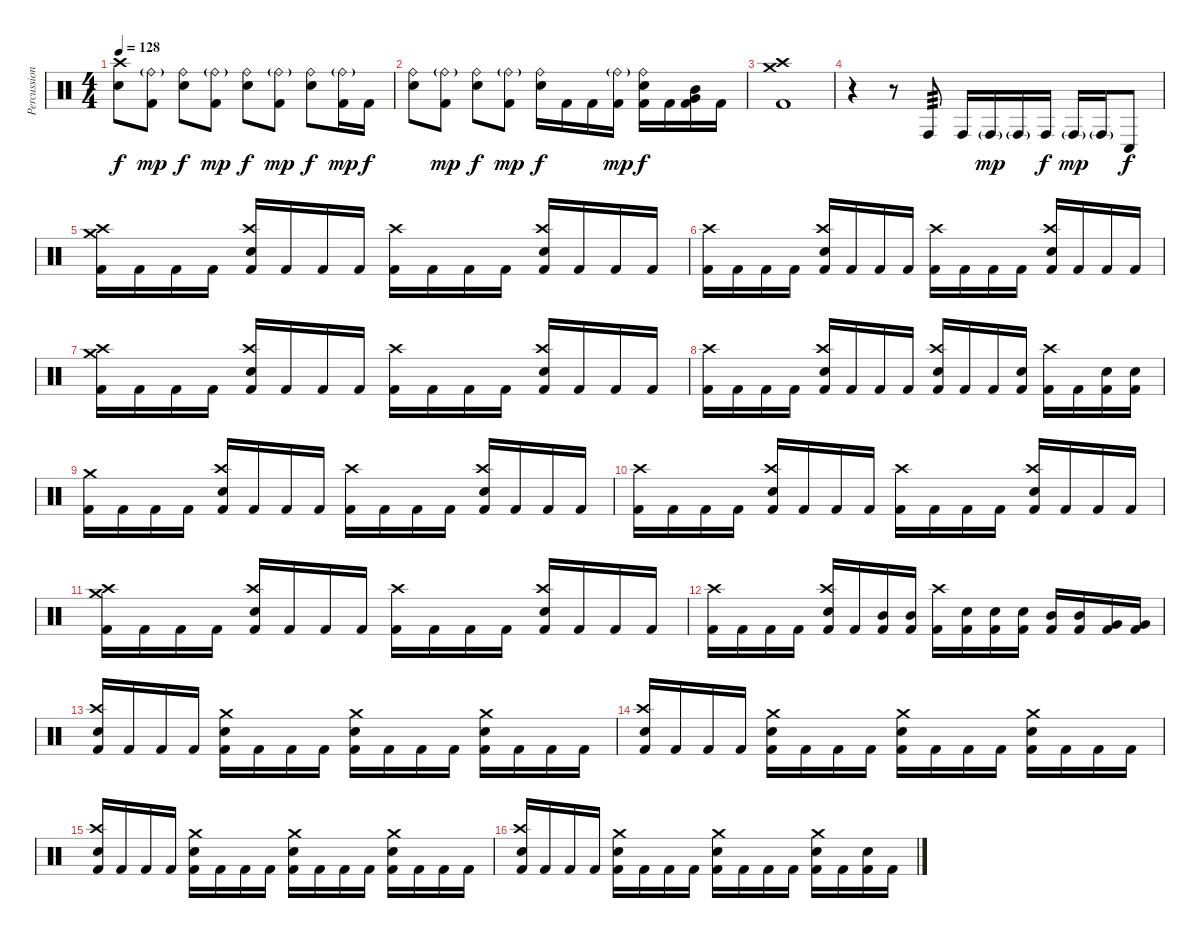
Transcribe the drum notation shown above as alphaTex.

\track ("Percussion" "Percussion") {instrument percussion}
\staff {score}
\articulation defaults
\ts (4 4)
\tempo 128
\clef neutral
\ks c
("Electric Snare (hit)" "Crash high (hit)").8{dy f} ("Kick (hit) 2" "Ride (bell)"{g}).8{dy mp} ("Electric Snare (hit)" "Ride (bell)").8{dy f} ("Kick (hit) 2" "Ride (bell)"{g}).8{dy mp} ("Electric Snare (hit)" "Ride (bell)").8{dy f} ("Kick (hit) 2" "Ride (bell)"{g}).8{dy mp} ("Electric Snare (hit)" "Ride (bell)").8{dy f} ("Kick (hit) 2" "Ride (bell)"{g}).16{dy mp} "Kick (hit) 2".16{dy f} |
("Electric Snare (hit)" "Ride (bell)").8 ("Kick (hit) 2" "Ride (bell)"{g}).8{dy mp} ("Electric Snare (hit)" "Ride (bell)").8{dy f} ("Kick (hit) 2" "Ride (bell)"{g}).8{dy mp} ("Electric Snare (hit)" "Ride (bell)").16{dy f} "Kick (hit) 2".16 "Kick (hit) 2".16 ("Kick (hit) 2" "Ride (bell)"{g}).16{dy mp} ("Kick (hit) 2" "Electric Snare (hit)" "Ride (bell)").16{dy f} "Kick (hit) 2".16 ("Kick (hit) 2" "Very Low Tom (hit)" "Mid Tom (hit)").16 "Kick (hit) 2".16 |
("Kick (hit) 2" "Crash medium (hit)" "Crash high (hit)").1 |
r.4 r.8 "Conga high (hit)".8{tp 3} "Conga high (hit)".16 "Conga high (hit)"{g}.16{dy mp} "Conga high (hit)"{g}.16 "Conga high (hit)".16{dy f} "Conga high (hit)"{g}.16{dy mp} "Conga high (hit)"{g}.16 "Conga low (hit)".8{dy f} |
("Kick (hit) 2" "Crash medium (hit)" "Crash high (hit)").16 "Kick (hit) 2".16 "Kick (hit) 2".16 "Kick (hit) 2".16 ("Kick (hit) 2" "Electric Snare (hit)" "Crash high (hit)").16 "Kick (hit) 2".16 "Kick (hit) 2".16 "Kick (hit) 2".16 ("Kick (hit) 2" "Crash high (hit)").16 "Kick (hit) 2".16 "Kick (hit) 2".16 "Kick (hit) 2".16 ("Kick (hit) 2" "Electric Snare (hit)" "Crash high (hit)").16 "Kick (hit) 2".16 "Kick (hit) 2".16 "Kick (hit) 2".16 |
("Kick (hit) 2" "Crash high (hit)").16 "Kick (hit) 2".16 "Kick (hit) 2".16 "Kick (hit) 2".16 ("Kick (hit) 2" "Electric Snare (hit)" "Crash high (hit)").16 "Kick (hit) 2".16 "Kick (hit) 2".16 "Kick (hit) 2".16 ("Kick (hit) 2" "Crash high (hit)").16 "Kick (hit) 2".16 "Kick (hit) 2".16 "Kick (hit) 2".16 ("Kick (hit) 2" "Electric Snare (hit)" "Crash high (hit)").16 "Kick (hit) 2".16 "Kick (hit) 2".16 "Kick (hit) 2".16 |
("Kick (hit) 2" "Crash medium (hit)" "Crash high (hit)").16 "Kick (hit) 2".16 "Kick (hit) 2".16 "Kick (hit) 2".16 ("Kick (hit) 2" "Electric Snare (hit)" "Crash high (hit)").16 "Kick (hit) 2".16 "Kick (hit) 2".16 "Kick (hit) 2".16 ("Kick (hit) 2" "Crash high (hit)").16 "Kick (hit) 2".16 "Kick (hit) 2".16 "Kick (hit) 2".16 ("Kick (hit) 2" "Electric Snare (hit)" "Crash high (hit)").16 "Kick (hit) 2".16 "Kick (hit) 2".16 "Kick (hit) 2".16 |
("Kick (hit) 2" "Crash high (hit)").16 "Kick (hit) 2".16 "Kick (hit) 2".16 "Kick (hit) 2".16 ("Kick (hit) 2" "Electric Snare (hit)" "Crash high (hit)").16 "Kick (hit) 2".16 "Kick (hit) 2".16 "Kick (hit) 2".16 ("Kick (hit) 2" "Electric Snare (hit)" "Crash high (hit)").16 "Kick (hit) 2".16 "Kick (hit) 2".16 ("Kick (hit) 2" "Electric Snare (hit)").16 ("Kick (hit) 2" "Crash high (hit)").16 "Kick (hit) 2".16 ("Kick (hit) 2" "Electric Snare (hit)").16 ("Kick (hit) 2" "Electric Snare (hit)").16 |
("Kick (hit) 2" "Crash medium (hit)").16 "Kick (hit) 2".16 "Kick (hit) 2".16 "Kick (hit) 2".16 ("Kick (hit) 2" "Electric Snare (hit)" "Crash high (hit)").16 "Kick (hit) 2".16 "Kick (hit) 2".16 "Kick (hit) 2".16 ("Kick (hit) 2" "Crash high (hit)").16 "Kick (hit) 2".16 "Kick (hit) 2".16 "Kick (hit) 2".16 ("Kick (hit) 2" "Electric Snare (hit)" "Crash high (hit)").16 "Kick (hit) 2".16 "Kick (hit) 2".16 "Kick (hit) 2".16 |
("Kick (hit) 2" "Crash high (hit)").16 "Kick (hit) 2".16 "Kick (hit) 2".16 "Kick (hit) 2".16 ("Kick (hit) 2" "Electric Snare (hit)" "Crash high (hit)").16 "Kick (hit) 2".16 "Kick (hit) 2".16 "Kick (hit) 2".16 ("Kick (hit) 2" "Crash high (hit)").16 "Kick (hit) 2".16 "Kick (hit) 2".16 "Kick (hit) 2".16 ("Kick (hit) 2" "Electric Snare (hit)" "Crash high (hit)").16 "Kick (hit) 2".16 "Kick (hit) 2".16 "Kick (hit) 2".16 |
("Kick (hit) 2" "Crash medium (hit)" "Crash high (hit)").16 "Kick (hit) 2".16 "Kick (hit) 2".16 "Kick (hit) 2".16 ("Kick (hit) 2" "Electric Snare (hit)" "Crash high (hit)").16 "Kick (hit) 2".16 "Kick (hit) 2".16 "Kick (hit) 2".16 ("Kick (hit) 2" "Crash high (hit)").16 "Kick (hit) 2".16 "Kick (hit) 2".16 "Kick (hit) 2".16 ("Kick (hit) 2" "Electric Snare (hit)" "Crash high (hit)").16 "Kick (hit) 2".16 "Kick (hit) 2".16 "Kick (hit) 2".16 |
("Kick (hit) 2" "Crash high (hit)").16 "Kick (hit) 2".16 "Kick (hit) 2".16 "Kick (hit) 2".16 ("Kick (hit) 2" "Electric Snare (hit)" "Crash high (hit)").16 "Kick (hit) 2".16 ("Kick (hit) 2" "Mid Tom (hit)").16 ("Kick (hit) 2" "Mid Tom (hit)").16 ("Kick (hit) 2" "Crash high (hit)").16 ("Kick (hit) 2" "Electric Snare (hit)").16 ("Kick (hit) 2" "Electric Snare (hit)").16 ("Kick (hit) 2" "Electric Snare (hit)").16 ("Kick (hit) 2" "Mid Tom (hit)").16 ("Kick (hit) 2" "Mid Tom (hit)").16 ("Kick (hit) 2" "Very Low Tom (hit)").16 ("Kick (hit) 2" "Very Low Tom (hit)").16 |
("Kick (hit) 2" "Electric Snare (hit)" "Crash high (hit)").16 "Kick (hit) 2".16 "Kick (hit) 2".16 "Kick (hit) 2".16 ("Kick (hit) 2" "Electric Snare (hit)" "Crash medium (hit)").16 "Kick (hit) 2".16 "Kick (hit) 2".16 "Kick (hit) 2".16 ("Kick (hit) 2" "Electric Snare (hit)" "Crash medium (hit)").16 "Kick (hit) 2".16 "Kick (hit) 2".16 "Kick (hit) 2".16 ("Kick (hit) 2" "Electric Snare (hit)" "Crash medium (hit)").16 "Kick (hit) 2".16 "Kick (hit) 2".16 "Kick (hit) 2".16 |
("Kick (hit) 2" "Electric Snare (hit)" "Crash high (hit)").16 "Kick (hit) 2".16 "Kick (hit) 2".16 "Kick (hit) 2".16 ("Kick (hit) 2" "Electric Snare (hit)" "Crash medium (hit)").16 "Kick (hit) 2".16 "Kick (hit) 2".16 "Kick (hit) 2".16 ("Kick (hit) 2" "Electric Snare (hit)" "Crash medium (hit)").16 "Kick (hit) 2".16 "Kick (hit) 2".16 "Kick (hit) 2".16 ("Kick (hit) 2" "Electric Snare (hit)" "Crash medium (hit)").16 "Kick (hit) 2".16 "Kick (hit) 2".16 "Kick (hit) 2".16 |
("Kick (hit) 2" "Electric Snare (hit)" "Crash high (hit)").16 "Kick (hit) 2".16 "Kick (hit) 2".16 "Kick (hit) 2".16 ("Kick (hit) 2" "Electric Snare (hit)" "Crash medium (hit)").16 "Kick (hit) 2".16 "Kick (hit) 2".16 "Kick (hit) 2".16 ("Kick (hit) 2" "Electric Snare (hit)" "Crash medium (hit)").16 "Kick (hit) 2".16 "Kick (hit) 2".16 "Kick (hit) 2".16 ("Kick (hit) 2" "Electric Snare (hit)" "Crash medium (hit)").16 "Kick (hit) 2".16 "Kick (hit) 2".16 "Kick (hit) 2".16 |
("Kick (hit) 2" "Electric Snare (hit)" "Crash high (hit)").16 "Kick (hit) 2".16 "Kick (hit) 2".16 "Kick (hit) 2".16 ("Kick (hit) 2" "Electric Snare (hit)" "Crash medium (hit)").16 "Kick (hit) 2".16 "Kick (hit) 2".16 "Kick (hit) 2".16 ("Kick (hit) 2" "Electric Snare (hit)" "Crash medium (hit)").16 "Kick (hit) 2".16 "Kick (hit) 2".16 "Kick (hit) 2".16 ("Kick (hit) 2" "Electric Snare (hit)" "Crash medium (hit)").16 "Kick (hit) 2".16 ("Kick (hit) 2" "Electric Snare (hit)").16 "Kick (hit) 2".16
